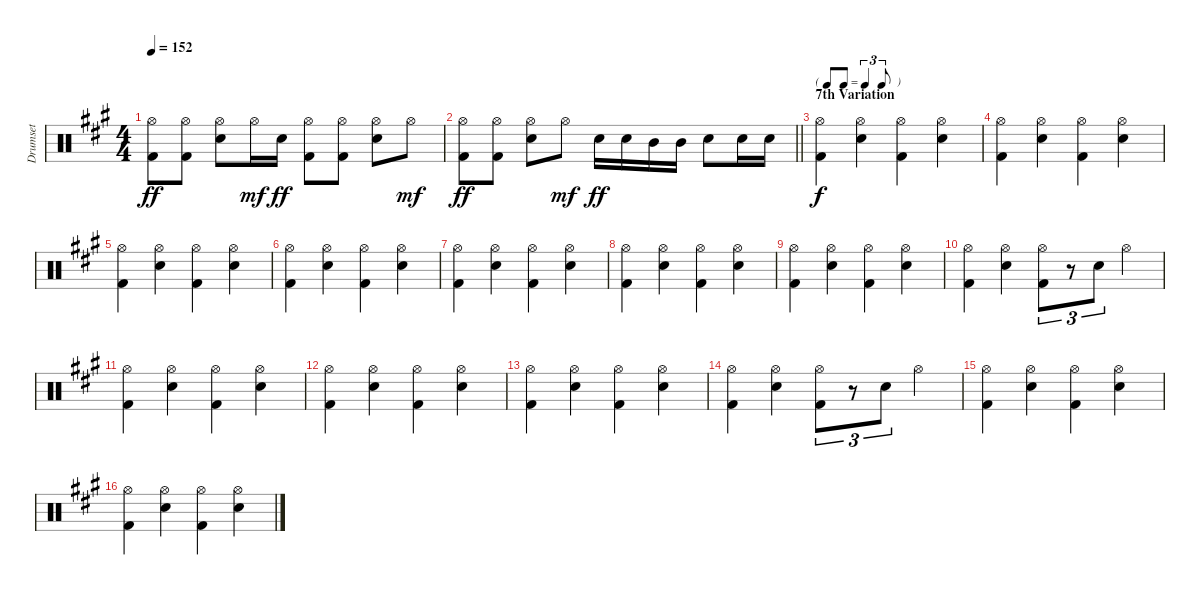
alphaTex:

\track ("Drumset" "Drumset") {instrument percussion}
\staff {score}
\articulation defaults
\ts (4 4)
\tempo 152
\clef neutral
\ks a
("Hi-Hat (open)" "Kick (hit) 2").8{dy ff} ("Hi-Hat (open)" "Kick (hit) 2").8 ("Hi-Hat (open)" "Electric Snare (hit)").8 "Hi-Hat (open)".16{dy mf} "Electric Snare (hit)".16{dy ff} ("Hi-Hat (open)" "Kick (hit) 2").8 ("Hi-Hat (open)" "Kick (hit) 2").8 ("Hi-Hat (open)" "Electric Snare (hit)").8 "Hi-Hat (open)".8{dy mf} |
\barLineRight lightlight
("Hi-Hat (open)" "Kick (hit) 2").8{dy ff} ("Hi-Hat (open)" "Kick (hit) 2").8 ("Hi-Hat (open)" "Electric Snare (hit)").8 "Hi-Hat (open)".8{dy mf} "Electric Snare (hit)".16{dy ff} "Electric Snare (hit)".16 "Mid Tom (hit)".16 "Mid Tom (hit)".16 "Electric Snare (hit)".8 "Electric Snare (hit)".16 "Electric Snare (hit)".16 |
\tf triplet8th
\section ("" "7th Variation")
("Hi-Hat (open)" "Kick (hit) 2").4{dy f} ("Hi-Hat (open)" "Electric Snare (hit)").4 ("Hi-Hat (open)" "Kick (hit) 2").4 ("Hi-Hat (open)" "Electric Snare (hit)").4 |
("Hi-Hat (open)" "Kick (hit) 2").4 ("Hi-Hat (open)" "Electric Snare (hit)").4 ("Hi-Hat (open)" "Kick (hit) 2").4 ("Hi-Hat (open)" "Electric Snare (hit)").4 |
("Hi-Hat (open)" "Kick (hit) 2").4 ("Hi-Hat (open)" "Electric Snare (hit)").4 ("Hi-Hat (open)" "Kick (hit) 2").4 ("Hi-Hat (open)" "Electric Snare (hit)").4 |
("Hi-Hat (open)" "Kick (hit) 2").4 ("Hi-Hat (open)" "Electric Snare (hit)").4 ("Hi-Hat (open)" "Kick (hit) 2").4 ("Hi-Hat (open)" "Electric Snare (hit)").4 |
("Hi-Hat (open)" "Kick (hit) 2").4 ("Hi-Hat (open)" "Electric Snare (hit)").4 ("Hi-Hat (open)" "Kick (hit) 2").4 ("Hi-Hat (open)" "Electric Snare (hit)").4 |
("Hi-Hat (open)" "Kick (hit) 2").4 ("Hi-Hat (open)" "Electric Snare (hit)").4 ("Hi-Hat (open)" "Kick (hit) 2").4 ("Hi-Hat (open)" "Electric Snare (hit)").4 |
("Hi-Hat (open)" "Kick (hit) 2").4 ("Hi-Hat (open)" "Electric Snare (hit)").4 ("Hi-Hat (open)" "Kick (hit) 2").4 ("Hi-Hat (open)" "Electric Snare (hit)").4 |
("Hi-Hat (open)" "Kick (hit) 2").4 ("Hi-Hat (open)" "Electric Snare (hit)").4 ("Hi-Hat (open)" "Kick (hit) 2").8{tu (3 2)} r.8{tu (3 2)} "Electric Snare (hit)".8{tu (3 2)} "Hi-Hat (open)".4 |
("Hi-Hat (open)" "Kick (hit) 2").4 ("Hi-Hat (open)" "Electric Snare (hit)").4 ("Hi-Hat (open)" "Kick (hit) 2").4 ("Hi-Hat (open)" "Electric Snare (hit)").4 |
("Hi-Hat (open)" "Kick (hit) 2").4 ("Hi-Hat (open)" "Electric Snare (hit)").4 ("Hi-Hat (open)" "Kick (hit) 2").4 ("Hi-Hat (open)" "Electric Snare (hit)").4 |
("Hi-Hat (open)" "Kick (hit) 2").4 ("Hi-Hat (open)" "Electric Snare (hit)").4 ("Hi-Hat (open)" "Kick (hit) 2").4 ("Hi-Hat (open)" "Electric Snare (hit)").4 |
("Hi-Hat (open)" "Kick (hit) 2").4 ("Hi-Hat (open)" "Electric Snare (hit)").4 ("Hi-Hat (open)" "Kick (hit) 2").8{tu (3 2)} r.8{tu (3 2)} "Electric Snare (hit)".8{tu (3 2)} "Hi-Hat (open)".4 |
("Hi-Hat (open)" "Kick (hit) 2").4 ("Hi-Hat (open)" "Electric Snare (hit)").4 ("Hi-Hat (open)" "Kick (hit) 2").4 ("Hi-Hat (open)" "Electric Snare (hit)").4 |
("Hi-Hat (open)" "Kick (hit) 2").4 ("Hi-Hat (open)" "Electric Snare (hit)").4 ("Hi-Hat (open)" "Kick (hit) 2").4 ("Hi-Hat (open)" "Electric Snare (hit)").4
